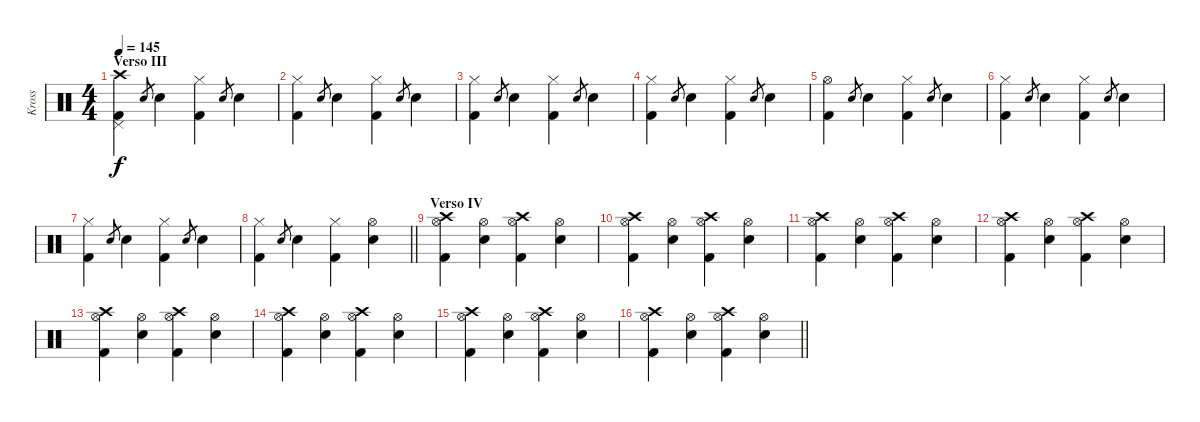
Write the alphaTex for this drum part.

\track ("Kross" "Kross") {instrument percussion}
\staff {score}
\articulation defaults
\ts (4 4)
\section ("" "Verso III")
\tempo 145
\clef neutral
\ks c
("Crash high (hit)" "Pedal Hi-Hat (hit)" "Kick (hit) 2").4{dy f} "Electric Snare (hit)".8{gr} "Electric Snare (hit)".4 ("Hi-Hat (closed)" "Kick (hit) 2").4 "Electric Snare (hit)".8{gr} "Electric Snare (hit)".4 |
("Hi-Hat (closed)" "Kick (hit) 2").4 "Electric Snare (hit)".8{gr} "Electric Snare (hit)".4 ("Hi-Hat (closed)" "Kick (hit) 2").4 "Electric Snare (hit)".8{gr} "Electric Snare (hit)".4 |
("Hi-Hat (closed)" "Kick (hit) 2").4 "Electric Snare (hit)".8{gr} "Electric Snare (hit)".4 ("Hi-Hat (closed)" "Kick (hit) 2").4 "Electric Snare (hit)".8{gr} "Electric Snare (hit)".4 |
("Hi-Hat (closed)" "Kick (hit) 2").4 "Electric Snare (hit)".8{gr} "Electric Snare (hit)".4 ("Hi-Hat (closed)" "Kick (hit) 2").4 "Electric Snare (hit)".8{gr} "Electric Snare (hit)".4 |
("Hi-Hat (open)" "Kick (hit) 2").4 "Electric Snare (hit)".8{gr} "Electric Snare (hit)".4 ("Hi-Hat (closed)" "Kick (hit) 2").4 "Electric Snare (hit)".8{gr} "Electric Snare (hit)".4 |
("Hi-Hat (closed)" "Kick (hit) 2").4 "Electric Snare (hit)".8{gr} "Electric Snare (hit)".4 ("Hi-Hat (closed)" "Kick (hit) 2").4 "Electric Snare (hit)".8{gr} "Electric Snare (hit)".4 |
("Hi-Hat (closed)" "Kick (hit) 2").4 "Electric Snare (hit)".8{gr} "Electric Snare (hit)".4 ("Hi-Hat (closed)" "Kick (hit) 2").4 "Electric Snare (hit)".8{gr} "Electric Snare (hit)".4 |
\barLineRight lightlight
("Hi-Hat (closed)" "Kick (hit) 2").4 "Electric Snare (hit)".8{gr} "Electric Snare (hit)".4 ("Hi-Hat (closed)" "Kick (hit) 2").4 ("Hi-Hat (open)" "Electric Snare (hit)").4 |
\section ("" "Verso IV")
("Crash high (hit)" "Hi-Hat (open)" "Kick (hit) 2").4 ("Hi-Hat (open)" "Electric Snare (hit)").4 ("Crash high (hit)" "Hi-Hat (open)" "Kick (hit) 2").4 ("Hi-Hat (open)" "Electric Snare (hit)").4 |
("Crash high (hit)" "Hi-Hat (open)" "Kick (hit) 2").4 ("Hi-Hat (open)" "Electric Snare (hit)").4 ("Crash high (hit)" "Hi-Hat (open)" "Kick (hit) 2").4 ("Hi-Hat (open)" "Electric Snare (hit)").4 |
("Crash high (hit)" "Hi-Hat (open)" "Kick (hit) 2").4 ("Hi-Hat (open)" "Electric Snare (hit)").4 ("Crash high (hit)" "Hi-Hat (open)" "Kick (hit) 2").4 ("Hi-Hat (open)" "Electric Snare (hit)").4 |
("Crash high (hit)" "Hi-Hat (open)" "Kick (hit) 2").4 ("Hi-Hat (open)" "Electric Snare (hit)").4 ("Crash high (hit)" "Hi-Hat (open)" "Kick (hit) 2").4 ("Hi-Hat (open)" "Electric Snare (hit)").4 |
("Crash high (hit)" "Hi-Hat (open)" "Kick (hit) 2").4 ("Hi-Hat (open)" "Electric Snare (hit)").4 ("Crash high (hit)" "Hi-Hat (open)" "Kick (hit) 2").4 ("Hi-Hat (open)" "Electric Snare (hit)").4 |
("Crash high (hit)" "Hi-Hat (open)" "Kick (hit) 2").4 ("Hi-Hat (open)" "Electric Snare (hit)").4 ("Crash high (hit)" "Hi-Hat (open)" "Kick (hit) 2").4 ("Hi-Hat (open)" "Electric Snare (hit)").4 |
("Crash high (hit)" "Hi-Hat (open)" "Kick (hit) 2").4 ("Hi-Hat (open)" "Electric Snare (hit)").4 ("Crash high (hit)" "Hi-Hat (open)" "Kick (hit) 2").4 ("Hi-Hat (open)" "Electric Snare (hit)").4 |
\barLineRight lightlight
("Crash high (hit)" "Hi-Hat (open)" "Kick (hit) 2").4 ("Hi-Hat (open)" "Electric Snare (hit)").4 ("Crash high (hit)" "Hi-Hat (open)" "Kick (hit) 2").4 ("Hi-Hat (open)" "Electric Snare (hit)").4
